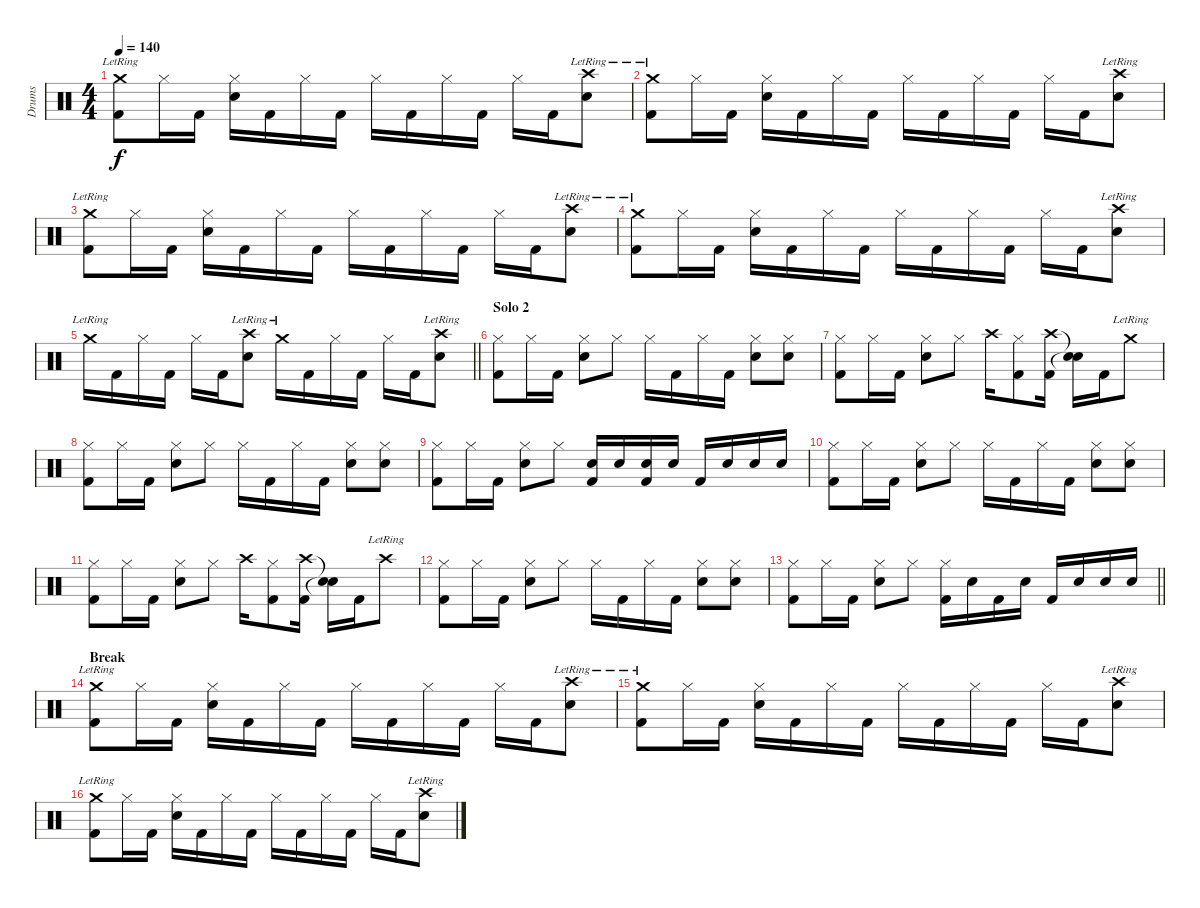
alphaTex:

\track ("Drums" "Drums") {instrument percussion}
\staff {score}
\articulation defaults
\ts (4 4)
\tempo 140
\clef neutral
\ks c
("Crash medium (hit)"{lr} "Kick (hit) 2").8{dy f} "Hi-Hat (closed)".16 "Kick (hit) 2".16 ("Hi-Hat (closed)" "Snare (hit) 2").16 "Kick (hit) 2".16 "Hi-Hat (closed)".16 "Kick (hit) 2".16 "Hi-Hat (closed)".16 "Kick (hit) 2".16 "Hi-Hat (closed)".16 "Kick (hit) 2".16 "Hi-Hat (closed)".16 "Kick (hit) 2".16 ("Crash high (hit)"{lr} "Snare (hit) 2").8 |
("Crash medium (hit)"{lr} "Kick (hit) 2").8 "Hi-Hat (closed)".16 "Kick (hit) 2".16 ("Hi-Hat (closed)" "Snare (hit) 2").16 "Kick (hit) 2".16 "Hi-Hat (closed)".16 "Kick (hit) 2".16 "Hi-Hat (closed)".16 "Kick (hit) 2".16 "Hi-Hat (closed)".16 "Kick (hit) 2".16 "Hi-Hat (closed)".16 "Kick (hit) 2".16 ("Crash high (hit)"{lr} "Snare (hit) 2").8 |
("Crash medium (hit)"{lr} "Kick (hit) 2").8 "Hi-Hat (closed)".16 "Kick (hit) 2".16 ("Hi-Hat (closed)" "Snare (hit) 2").16 "Kick (hit) 2".16 "Hi-Hat (closed)".16 "Kick (hit) 2".16 "Hi-Hat (closed)".16 "Kick (hit) 2".16 "Hi-Hat (closed)".16 "Kick (hit) 2".16 "Hi-Hat (closed)".16 "Kick (hit) 2".16 ("Crash high (hit)"{lr} "Snare (hit) 2").8 |
("Crash medium (hit)"{lr} "Kick (hit) 2").8 "Hi-Hat (closed)".16 "Kick (hit) 2".16 ("Hi-Hat (closed)" "Snare (hit) 2").16 "Kick (hit) 2".16 "Hi-Hat (closed)".16 "Kick (hit) 2".16 "Hi-Hat (closed)".16 "Kick (hit) 2".16 "Hi-Hat (closed)".16 "Kick (hit) 2".16 "Hi-Hat (closed)".16 "Kick (hit) 2".16 ("Crash high (hit)"{lr} "Snare (hit) 2").8 |
\barLineRight lightlight "Crash medium (hit)"{lr}.16 "Kick (hit) 2".16 "Hi-Hat (closed)".16 "Kick (hit) 2".16 "Hi-Hat (closed)".16 "Kick (hit) 2".16
("Crash high (hit)"{lr} "Snare (hit) 2").8 "Crash medium (hit)"{lr}.16 "Kick (hit) 2".16 "Hi-Hat (closed)".16 "Kick (hit) 2".16 "Hi-Hat (closed)".16 "Kick (hit) 2".16 ("Crash high (hit)"{lr} "Snare (hit) 2").8 |
\section ("" "Solo 2")
("Hi-Hat (closed)" "Kick (hit) 2").8 "Hi-Hat (closed)".16 "Kick (hit) 2".16 ("Hi-Hat (closed)" "Snare (hit) 2").8 "Hi-Hat (closed)".8 "Hi-Hat (closed)".16 "Kick (hit) 2".16 "Hi-Hat (closed)".16 "Kick (hit) 2".16 ("Hi-Hat (closed)" "Snare (hit) 2").8 ("Hi-Hat (closed)" "Snare (hit) 2").8 |
("Hi-Hat (closed)" "Kick (hit) 2").8 "Hi-Hat (closed)".16 "Kick (hit) 2".16 ("Hi-Hat (closed)" "Snare (hit) 2").8 "Hi-Hat (closed)".8 "Crash high (hit)".16 ("Hi-Hat (closed)" "Kick (hit) 2").8 ("Crash high (hit)" "Kick (hit) 2").16 ("Snare (hit)"{t} "Snare (hit)"{t}).16 "Kick (hit) 2".16 "Crash medium (hit)"{lr}.8 |
("Hi-Hat (closed)" "Kick (hit) 2").8 "Hi-Hat (closed)".16 "Kick (hit) 2".16 ("Hi-Hat (closed)" "Snare (hit) 2").8 "Hi-Hat (closed)".8 "Hi-Hat (closed)".16 "Kick (hit) 2".16 "Hi-Hat (closed)".16 "Kick (hit) 2".16 ("Hi-Hat (closed)" "Snare (hit) 2").8 ("Hi-Hat (closed)" "Snare (hit) 2").8 |
("Hi-Hat (closed)" "Kick (hit) 2").8 "Hi-Hat (closed)".16 "Kick (hit) 2".16 ("Hi-Hat (closed)" "Snare (hit) 2").8 "Hi-Hat (closed)".8 ("Snare (hit) 2" "Kick (hit) 2").16 "Snare (hit) 2".16 ("Snare (hit) 2" "Kick (hit) 2").16 "Snare (hit) 2".16 "Kick (hit) 2".16 "Snare (hit) 2".16 "Snare (hit) 2".16 "Snare (hit) 2".16 |
("Hi-Hat (closed)" "Kick (hit) 2").8 "Hi-Hat (closed)".16 "Kick (hit) 2".16 ("Hi-Hat (closed)" "Snare (hit) 2").8 "Hi-Hat (closed)".8 "Hi-Hat (closed)".16 "Kick (hit) 2".16 "Hi-Hat (closed)".16 "Kick (hit) 2".16 ("Hi-Hat (closed)" "Snare (hit) 2").8 ("Hi-Hat (closed)" "Snare (hit) 2").8 |
("Hi-Hat (closed)" "Kick (hit) 2").8 "Hi-Hat (closed)".16 "Kick (hit) 2".16 ("Hi-Hat (closed)" "Snare (hit) 2").8 "Hi-Hat (closed)".8 "Crash high (hit)".16 ("Hi-Hat (closed)" "Kick (hit) 2").8 ("Crash high (hit)" "Kick (hit) 2").16 ("Snare (hit)"{t} "Snare (hit)"{t}).16 "Kick (hit) 2".16 "Crash high (hit)"{lr}.8 |
("Hi-Hat (closed)" "Kick (hit) 2").8 "Hi-Hat (closed)".16 "Kick (hit) 2".16 ("Hi-Hat (closed)" "Snare (hit) 2").8 "Hi-Hat (closed)".8 "Hi-Hat (closed)".16 "Kick (hit) 2".16 "Hi-Hat (closed)".16 "Kick (hit) 2".16 ("Hi-Hat (closed)" "Snare (hit) 2").8 ("Hi-Hat (closed)" "Snare (hit) 2").8 |
\barLineRight lightlight
("Hi-Hat (closed)" "Kick (hit) 2").8 "Hi-Hat (closed)".16 "Kick (hit) 2".16 ("Hi-Hat (closed)" "Snare (hit) 2").8 "Hi-Hat (closed)".8 ("Hi-Hat (closed)" "Kick (hit) 2").16 "Snare (hit) 2".16 "Kick (hit) 2".16 "Snare (hit) 2".16 "Kick (hit) 2".16 "Snare (hit) 2".16 "Snare (hit) 2".16 "Snare (hit) 2".16 |
\section ("" "Break")
("Crash medium (hit)"{lr} "Kick (hit) 2").8 "Hi-Hat (closed)".16 "Kick (hit) 2".16 ("Hi-Hat (closed)" "Snare (hit) 2").16 "Kick (hit) 2".16 "Hi-Hat (closed)".16 "Kick (hit) 2".16 "Hi-Hat (closed)".16 "Kick (hit) 2".16 "Hi-Hat (closed)".16 "Kick (hit) 2".16 "Hi-Hat (closed)".16 "Kick (hit) 2".16 ("Crash high (hit)"{lr} "Snare (hit) 2").8 |
("Crash medium (hit)"{lr} "Kick (hit) 2").8 "Hi-Hat (closed)".16 "Kick (hit) 2".16 ("Hi-Hat (closed)" "Snare (hit) 2").16 "Kick (hit) 2".16 "Hi-Hat (closed)".16 "Kick (hit) 2".16 "Hi-Hat (closed)".16 "Kick (hit) 2".16 "Hi-Hat (closed)".16 "Kick (hit) 2".16 "Hi-Hat (closed)".16 "Kick (hit) 2".16 ("Crash high (hit)"{lr} "Snare (hit) 2").8 |
("Crash medium (hit)"{lr} "Kick (hit) 2").8 "Hi-Hat (closed)".16 "Kick (hit) 2".16 ("Hi-Hat (closed)" "Snare (hit) 2").16 "Kick (hit) 2".16 "Hi-Hat (closed)".16 "Kick (hit) 2".16 "Hi-Hat (closed)".16 "Kick (hit) 2".16 "Hi-Hat (closed)".16 "Kick (hit) 2".16 "Hi-Hat (closed)".16 "Kick (hit) 2".16 ("Crash high (hit)"{lr} "Snare (hit) 2").8
